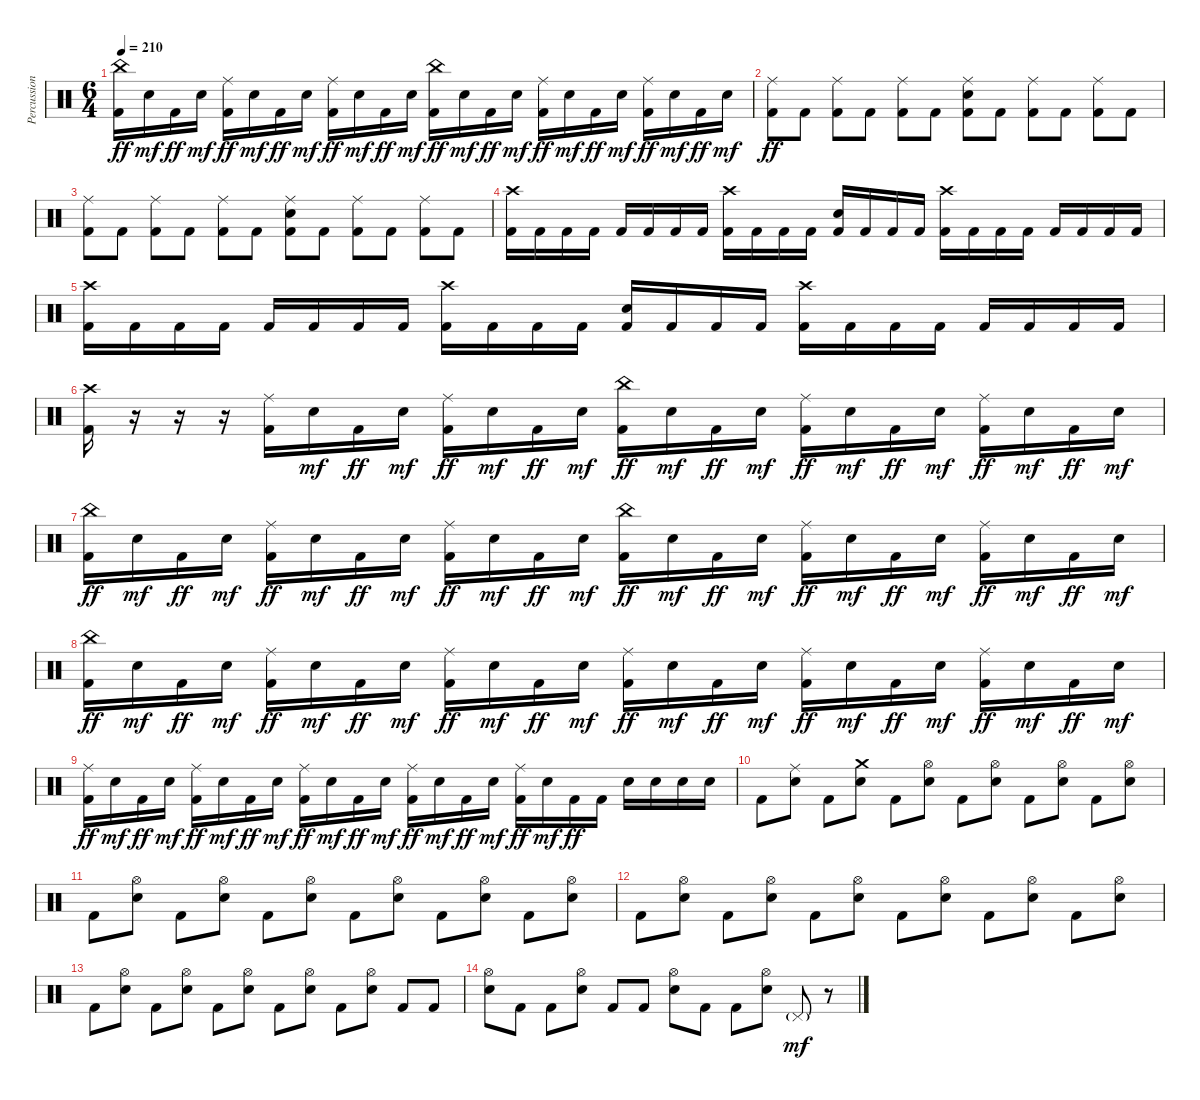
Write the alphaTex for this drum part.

\track ("Percussion" "Percussion") {instrument percussion}
\staff {score}
\articulation defaults
\ts (6 4)
\tempo 210
\clef neutral
\ks c
("China (hit)" "Kick (hit) 2").16{dy ff} "Electric Snare (hit)".16{dy mf} "Kick (hit) 2".16{dy ff} "Electric Snare (hit)".16{dy mf} ("Ride (middle)" "Kick (hit) 2").16{dy ff} "Electric Snare (hit)".16{dy mf} "Kick (hit) 2".16{dy ff} "Electric Snare (hit)".16{dy mf} ("Ride (middle)" "Kick (hit) 2").16{dy ff} "Electric Snare (hit)".16{dy mf} "Kick (hit) 2".16{dy ff} "Electric Snare (hit)".16{dy mf} ("China (hit)" "Kick (hit) 2").16{dy ff} "Electric Snare (hit)".16{dy mf} "Kick (hit) 2".16{dy ff} "Electric Snare (hit)".16{dy mf} ("Ride (middle)" "Kick (hit) 2").16{dy ff} "Electric Snare (hit)".16{dy mf} "Kick (hit) 2".16{dy ff} "Electric Snare (hit)".16{dy mf} ("Ride (middle)" "Kick (hit) 2").16{dy ff} "Electric Snare (hit)".16{dy mf} "Kick (hit) 2".16{dy ff} "Electric Snare (hit)".16{dy mf} |
("Ride (middle)" "Kick (hit) 2").8{dy ff} "Kick (hit) 2".8 ("Ride (middle)" "Kick (hit) 2").8 "Kick (hit) 2".8 ("Ride (middle)" "Kick (hit) 2").8 "Kick (hit) 2".8 ("Ride (middle)" "Electric Snare (hit)" "Kick (hit) 2").8 "Kick (hit) 2".8 ("Ride (middle)" "Kick (hit) 2").8 "Kick (hit) 2".8 ("Ride (middle)" "Kick (hit) 2").8 "Kick (hit) 2".8 |
("Ride (middle)" "Kick (hit) 2").8 "Kick (hit) 2".8 ("Ride (middle)" "Kick (hit) 2").8 "Kick (hit) 2".8 ("Ride (middle)" "Kick (hit) 2").8 "Kick (hit) 2".8 ("Ride (middle)" "Electric Snare (hit)" "Kick (hit) 2").8 "Kick (hit) 2".8 ("Ride (middle)" "Kick (hit) 2").8 "Kick (hit) 2".8 ("Ride (middle)" "Kick (hit) 2").8 "Kick (hit) 2".8 |
("Crash high (hit)" "Kick (hit) 2").16 "Kick (hit) 2".16 "Kick (hit) 2".16 "Kick (hit) 2".16 "Kick (hit) 2".16 "Kick (hit) 2".16 "Kick (hit) 2".16 "Kick (hit) 2".16 ("Crash high (hit)" "Kick (hit) 2").16 "Kick (hit) 2".16 "Kick (hit) 2".16 "Kick (hit) 2".16 ("Electric Snare (hit)" "Kick (hit) 2").16 "Kick (hit) 2".16 "Kick (hit) 2".16 "Kick (hit) 2".16 ("Crash high (hit)" "Kick (hit) 2").16 "Kick (hit) 2".16 "Kick (hit) 2".16 "Kick (hit) 2".16 "Kick (hit) 2".16 "Kick (hit) 2".16 "Kick (hit) 2".16 "Kick (hit) 2".16 |
("Crash high (hit)" "Kick (hit) 2").16 "Kick (hit) 2".16 "Kick (hit) 2".16 "Kick (hit) 2".16 "Kick (hit) 2".16 "Kick (hit) 2".16 "Kick (hit) 2".16 "Kick (hit) 2".16 ("Crash high (hit)" "Kick (hit) 2").16 "Kick (hit) 2".16 "Kick (hit) 2".16 "Kick (hit) 2".16 ("Electric Snare (hit)" "Kick (hit) 2").16 "Kick (hit) 2".16 "Kick (hit) 2".16 "Kick (hit) 2".16 ("Crash high (hit)" "Kick (hit) 2").16 "Kick (hit) 2".16 "Kick (hit) 2".16 "Kick (hit) 2".16 "Kick (hit) 2".16 "Kick (hit) 2".16 "Kick (hit) 2".16 "Kick (hit) 2".16 |
("Crash high (hit)" "Kick (hit) 2").16 r.16 r.16 r.16 ("Ride (middle)" "Kick (hit) 2").16 "Electric Snare (hit)".16{dy mf} "Kick (hit) 2".16{dy ff} "Electric Snare (hit)".16{dy mf} ("Ride (middle)" "Kick (hit) 2").16{dy ff} "Electric Snare (hit)".16{dy mf} "Kick (hit) 2".16{dy ff} "Electric Snare (hit)".16{dy mf} ("China (hit)" "Kick (hit) 2").16{dy ff} "Electric Snare (hit)".16{dy mf} "Kick (hit) 2".16{dy ff} "Electric Snare (hit)".16{dy mf} ("Ride (middle)" "Kick (hit) 2").16{dy ff} "Electric Snare (hit)".16{dy mf} "Kick (hit) 2".16{dy ff} "Electric Snare (hit)".16{dy mf} ("Ride (middle)" "Kick (hit) 2").16{dy ff} "Electric Snare (hit)".16{dy mf} "Kick (hit) 2".16{dy ff} "Electric Snare (hit)".16{dy mf} |
("China (hit)" "Kick (hit) 2").16{dy ff} "Electric Snare (hit)".16{dy mf} "Kick (hit) 2".16{dy ff} "Electric Snare (hit)".16{dy mf} ("Ride (middle)" "Kick (hit) 2").16{dy ff} "Electric Snare (hit)".16{dy mf} "Kick (hit) 2".16{dy ff} "Electric Snare (hit)".16{dy mf} ("Ride (middle)" "Kick (hit) 2").16{dy ff} "Electric Snare (hit)".16{dy mf} "Kick (hit) 2".16{dy ff} "Electric Snare (hit)".16{dy mf} ("China (hit)" "Kick (hit) 2").16{dy ff} "Electric Snare (hit)".16{dy mf} "Kick (hit) 2".16{dy ff} "Electric Snare (hit)".16{dy mf} ("Ride (middle)" "Kick (hit) 2").16{dy ff} "Electric Snare (hit)".16{dy mf} "Kick (hit) 2".16{dy ff} "Electric Snare (hit)".16{dy mf} ("Ride (middle)" "Kick (hit) 2").16{dy ff} "Electric Snare (hit)".16{dy mf} "Kick (hit) 2".16{dy ff} "Electric Snare (hit)".16{dy mf} |
("China (hit)" "Kick (hit) 2").16{dy ff} "Electric Snare (hit)".16{dy mf} "Kick (hit) 2".16{dy ff} "Electric Snare (hit)".16{dy mf} ("Ride (middle)" "Kick (hit) 2").16{dy ff} "Electric Snare (hit)".16{dy mf} "Kick (hit) 2".16{dy ff} "Electric Snare (hit)".16{dy mf} ("Ride (middle)" "Kick (hit) 2").16{dy ff} "Electric Snare (hit)".16{dy mf} "Kick (hit) 2".16{dy ff} "Electric Snare (hit)".16{dy mf} ("Ride (middle)" "Kick (hit) 2").16{dy ff} "Electric Snare (hit)".16{dy mf} "Kick (hit) 2".16{dy ff} "Electric Snare (hit)".16{dy mf} ("Ride (middle)" "Kick (hit) 2").16{dy ff} "Electric Snare (hit)".16{dy mf} "Kick (hit) 2".16{dy ff} "Electric Snare (hit)".16{dy mf} ("Ride (middle)" "Kick (hit) 2").16{dy ff} "Electric Snare (hit)".16{dy mf} "Kick (hit) 2".16{dy ff} "Electric Snare (hit)".16{dy mf} |
("Ride (middle)" "Kick (hit) 2").16{dy ff} "Electric Snare (hit)".16{dy mf} "Kick (hit) 2".16{dy ff} "Electric Snare (hit)".16{dy mf} ("Ride (middle)" "Kick (hit) 2").16{dy ff} "Electric Snare (hit)".16{dy mf} "Kick (hit) 2".16{dy ff} "Electric Snare (hit)".16{dy mf} ("Ride (middle)" "Kick (hit) 2").16{dy ff} "Electric Snare (hit)".16{dy mf} "Kick (hit) 2".16{dy ff} "Electric Snare (hit)".16{dy mf} ("Ride (middle)" "Kick (hit) 2").16{dy ff} "Electric Snare (hit)".16{dy mf} "Kick (hit) 2".16{dy ff} "Electric Snare (hit)".16{dy mf} ("Ride (middle)" "Kick (hit) 2").16{dy ff} "Electric Snare (hit)".16{dy mf} "Kick (hit) 2".16{dy ff} "Kick (hit) 2".16 "Electric Snare (hit)".16 "Electric Snare (hit)".16 "Electric Snare (hit)".16 "Electric Snare (hit)".16 |
"Kick (hit) 2".8 ("Ride (middle)" "Electric Snare (hit)").8 "Kick (hit) 2".8 ("Crash medium (hit)" "Electric Snare (hit)").8 "Kick (hit) 2".8 ("Hi-Hat (open)" "Electric Snare (hit)").8 "Kick (hit) 2".8 ("Hi-Hat (open)" "Electric Snare (hit)").8 "Kick (hit) 2".8 ("Hi-Hat (open)" "Electric Snare (hit)").8 "Kick (hit) 2".8 ("Hi-Hat (open)" "Electric Snare (hit)").8 |
"Kick (hit) 2".8 ("Hi-Hat (open)" "Electric Snare (hit)").8 "Kick (hit) 2".8 ("Hi-Hat (open)" "Electric Snare (hit)").8 "Kick (hit) 2".8 ("Hi-Hat (open)" "Electric Snare (hit)").8 "Kick (hit) 2".8 ("Hi-Hat (open)" "Electric Snare (hit)").8 "Kick (hit) 2".8 ("Hi-Hat (open)" "Electric Snare (hit)").8 "Kick (hit) 2".8 ("Hi-Hat (open)" "Electric Snare (hit)").8 |
"Kick (hit) 2".8 ("Hi-Hat (open)" "Electric Snare (hit)").8 "Kick (hit) 2".8 ("Hi-Hat (open)" "Electric Snare (hit)").8 "Kick (hit) 2".8 ("Hi-Hat (open)" "Electric Snare (hit)").8 "Kick (hit) 2".8 ("Hi-Hat (open)" "Electric Snare (hit)").8 "Kick (hit) 2".8 ("Hi-Hat (open)" "Electric Snare (hit)").8 "Kick (hit) 2".8 ("Hi-Hat (open)" "Electric Snare (hit)").8 |
"Kick (hit) 2".8 ("Hi-Hat (open)" "Electric Snare (hit)").8 "Kick (hit) 2".8 ("Hi-Hat (open)" "Electric Snare (hit)").8 "Kick (hit) 2".8 ("Hi-Hat (open)" "Electric Snare (hit)").8 "Kick (hit) 2".8 ("Hi-Hat (open)" "Electric Snare (hit)").8 "Kick (hit) 2".8 ("Hi-Hat (open)" "Electric Snare (hit)").8 "Kick (hit) 2".8 "Kick (hit) 2".8 |
("Hi-Hat (open)" "Electric Snare (hit)").8 "Kick (hit) 2".8 "Kick (hit) 2".8 ("Hi-Hat (open)" "Electric Snare (hit)").8 "Kick (hit) 2".8 "Kick (hit) 2".8 ("Hi-Hat (open)" "Electric Snare (hit)").8 "Kick (hit) 2".8 "Kick (hit) 2".8 ("Hi-Hat (open)" "Electric Snare (hit)").8 "Pedal Hi-Hat (hit)"{g}.8{dy mf} r.8
